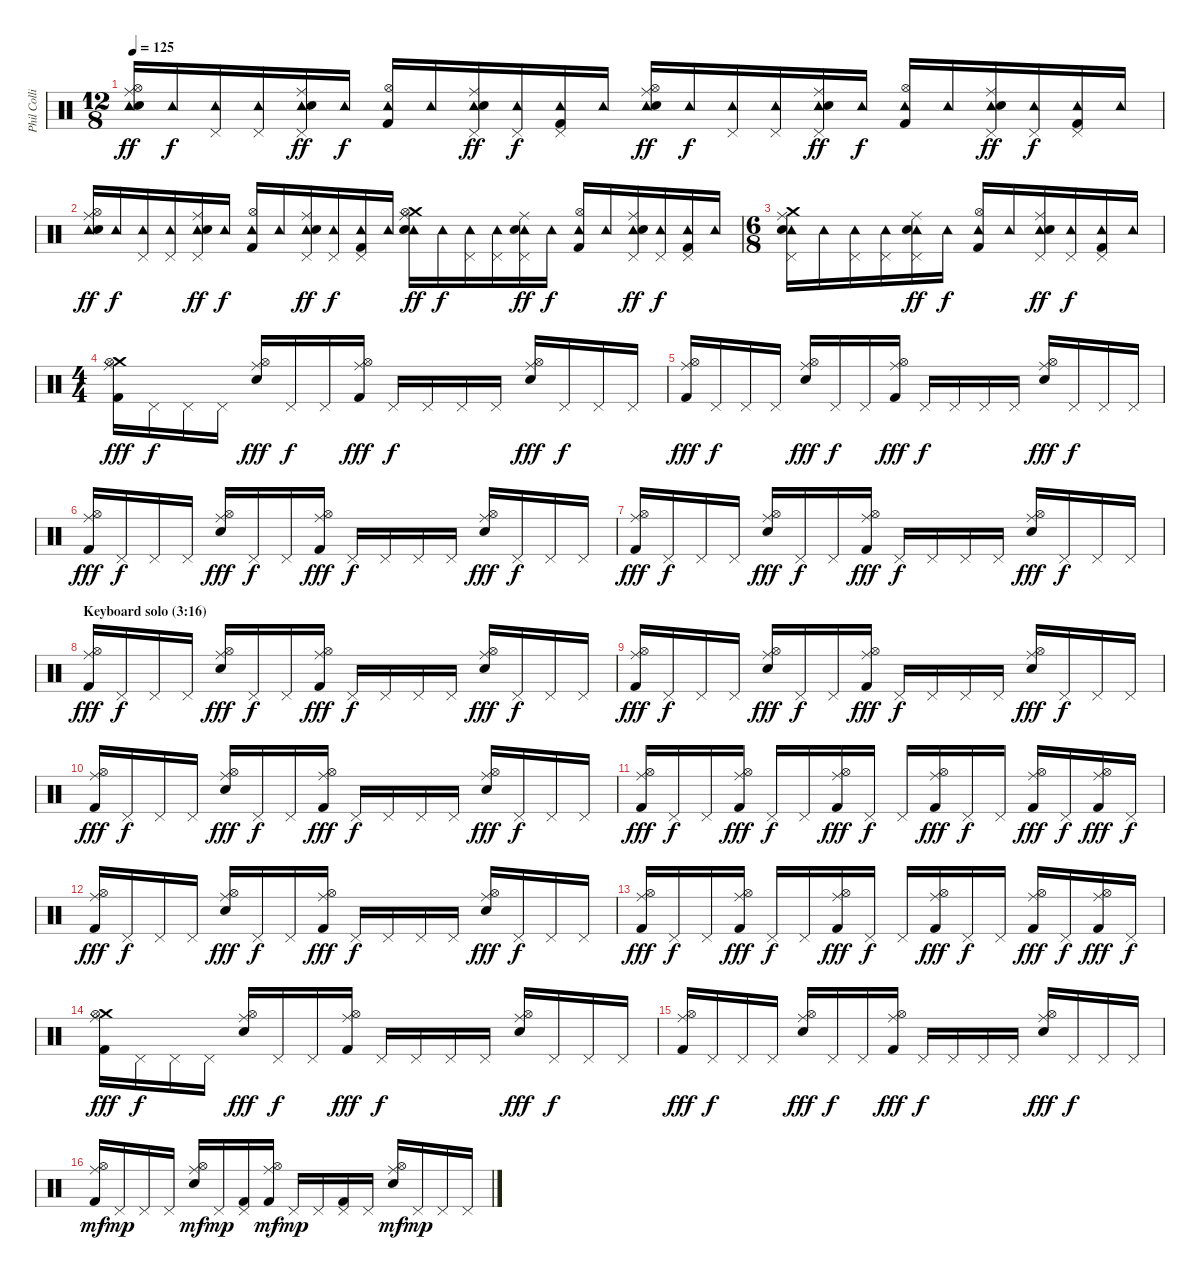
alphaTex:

\track ("Phil Collins (drums)" "Phil Colli") {instrument percussion}
\staff {score}
\articulation defaults
\ts (12 8)
\tempo 125
\clef neutral
\ks c
("Ride (middle)" "Tambourine (hit)" "Hi-Hat (open)" "Electric Snare (hit)").16{dy ff} "Tambourine (hit)".16{dy f} ("Tambourine (hit)" "Pedal Hi-Hat (hit)").16 ("Tambourine (hit)" "Pedal Hi-Hat (hit)").16 ("Ride (middle)" "Tambourine (hit)" "Pedal Hi-Hat (hit)" "Electric Snare (hit)").16{dy ff} "Tambourine (hit)".16{dy f} ("Tambourine (hit)" "Hi-Hat (open)" "Kick (hit) 2").16 "Tambourine (hit)".16 ("Ride (middle)" "Tambourine (hit)" "Pedal Hi-Hat (hit)" "Electric Snare (hit)").16{dy ff} ("Tambourine (hit)" "Pedal Hi-Hat (hit)").16{dy f} ("Tambourine (hit)" "Pedal Hi-Hat (hit)" "Kick (hit) 2").16 "Tambourine (hit)".16 ("Ride (middle)" "Tambourine (hit)" "Hi-Hat (open)" "Electric Snare (hit)").16{dy ff} "Tambourine (hit)".16{dy f} ("Tambourine (hit)" "Pedal Hi-Hat (hit)").16 ("Tambourine (hit)" "Pedal Hi-Hat (hit)").16 ("Ride (middle)" "Tambourine (hit)" "Pedal Hi-Hat (hit)" "Electric Snare (hit)").16{dy ff} "Tambourine (hit)".16{dy f} ("Tambourine (hit)" "Hi-Hat (open)" "Kick (hit) 2").16 "Tambourine (hit)".16 ("Ride (middle)" "Tambourine (hit)" "Pedal Hi-Hat (hit)" "Electric Snare (hit)").16{dy ff} ("Tambourine (hit)" "Pedal Hi-Hat (hit)").16{dy f} ("Tambourine (hit)" "Pedal Hi-Hat (hit)" "Kick (hit) 2").16 "Tambourine (hit)".16 |
("Ride (middle)" "Tambourine (hit)" "Hi-Hat (open)" "Electric Snare (hit)").16{dy ff} "Tambourine (hit)".16{dy f} ("Tambourine (hit)" "Pedal Hi-Hat (hit)").16 ("Tambourine (hit)" "Pedal Hi-Hat (hit)").16 ("Ride (middle)" "Tambourine (hit)" "Pedal Hi-Hat (hit)" "Electric Snare (hit)").16{dy ff} "Tambourine (hit)".16{dy f} ("Tambourine (hit)" "Hi-Hat (open)" "Kick (hit) 2").16 "Tambourine (hit)".16 ("Ride (middle)" "Tambourine (hit)" "Pedal Hi-Hat (hit)" "Electric Snare (hit)").16{dy ff} ("Tambourine (hit)" "Pedal Hi-Hat (hit)").16{dy f} ("Tambourine (hit)" "Pedal Hi-Hat (hit)" "Kick (hit) 2").16 "Tambourine (hit)".16 ("Crash medium (hit)" "Ride (middle)" "Tambourine (hit)" "Hi-Hat (open)" "Electric Snare (hit)").16{dy ff} "Tambourine (hit)".16{dy f} ("Tambourine (hit)" "Pedal Hi-Hat (hit)").16 ("Tambourine (hit)" "Pedal Hi-Hat (hit)").16 ("Ride (middle)" "Tambourine (hit)" "Pedal Hi-Hat (hit)" "Electric Snare (hit)").16{dy ff} "Tambourine (hit)".16{dy f} ("Tambourine (hit)" "Hi-Hat (open)" "Kick (hit) 2").16 "Tambourine (hit)".16 ("Ride (middle)" "Tambourine (hit)" "Pedal Hi-Hat (hit)" "Electric Snare (hit)").16{dy ff} ("Tambourine (hit)" "Pedal Hi-Hat (hit)").16{dy f} ("Tambourine (hit)" "Pedal Hi-Hat (hit)" "Kick (hit) 2").16 "Tambourine (hit)".16 |
\ts (6 8)
("Crash medium (hit)" "Ride (middle)" "Tambourine (hit)" "Pedal Hi-Hat (hit)" "Electric Snare (hit)").16 "Tambourine (hit)".16 ("Tambourine (hit)" "Pedal Hi-Hat (hit)").16 ("Tambourine (hit)" "Pedal Hi-Hat (hit)").16 ("Ride (middle)" "Tambourine (hit)" "Pedal Hi-Hat (hit)" "Electric Snare (hit)").16{dy ff} "Tambourine (hit)".16{dy f} ("Tambourine (hit)" "Hi-Hat (open)" "Kick (hit) 2").16 "Tambourine (hit)".16 ("Ride (middle)" "Tambourine (hit)" "Pedal Hi-Hat (hit)" "Electric Snare (hit)").16{dy ff} ("Tambourine (hit)" "Pedal Hi-Hat (hit)").16{dy f} ("Tambourine (hit)" "Pedal Hi-Hat (hit)" "Kick (hit) 2").16 "Tambourine (hit)".16 |
\ts (4 4)
("Crash medium (hit)" "Ride (middle)" "Hi-Hat (open)" "Kick (hit) 2").16{dy fff} "Pedal Hi-Hat (hit)".16{dy f} "Pedal Hi-Hat (hit)".16 "Pedal Hi-Hat (hit)".16 ("Ride (middle)" "Hi-Hat (open)" "Electric Snare (hit)").16{dy fff} "Pedal Hi-Hat (hit)".16{dy f} "Pedal Hi-Hat (hit)".16 ("Ride (middle)" "Hi-Hat (open)" "Kick (hit) 2").16{dy fff} "Pedal Hi-Hat (hit)".16{dy f} "Pedal Hi-Hat (hit)".16 "Pedal Hi-Hat (hit)".16 "Pedal Hi-Hat (hit)".16 ("Ride (middle)" "Hi-Hat (open)" "Electric Snare (hit)").16{dy fff} "Pedal Hi-Hat (hit)".16{dy f} "Pedal Hi-Hat (hit)".16 "Pedal Hi-Hat (hit)".16 |
("Ride (middle)" "Hi-Hat (open)" "Kick (hit) 2").16{dy fff} "Pedal Hi-Hat (hit)".16{dy f} "Pedal Hi-Hat (hit)".16 "Pedal Hi-Hat (hit)".16 ("Ride (middle)" "Hi-Hat (open)" "Electric Snare (hit)").16{dy fff} "Pedal Hi-Hat (hit)".16{dy f} "Pedal Hi-Hat (hit)".16 ("Ride (middle)" "Hi-Hat (open)" "Kick (hit) 2").16{dy fff} "Pedal Hi-Hat (hit)".16{dy f} "Pedal Hi-Hat (hit)".16 "Pedal Hi-Hat (hit)".16 "Pedal Hi-Hat (hit)".16 ("Ride (middle)" "Hi-Hat (open)" "Electric Snare (hit)").16{dy fff} "Pedal Hi-Hat (hit)".16{dy f} "Pedal Hi-Hat (hit)".16 "Pedal Hi-Hat (hit)".16 |
("Ride (middle)" "Hi-Hat (open)" "Kick (hit) 2").16{dy fff} "Pedal Hi-Hat (hit)".16{dy f} "Pedal Hi-Hat (hit)".16 "Pedal Hi-Hat (hit)".16 ("Ride (middle)" "Hi-Hat (open)" "Electric Snare (hit)").16{dy fff} "Pedal Hi-Hat (hit)".16{dy f} "Pedal Hi-Hat (hit)".16 ("Ride (middle)" "Hi-Hat (open)" "Kick (hit) 2").16{dy fff} "Pedal Hi-Hat (hit)".16{dy f} "Pedal Hi-Hat (hit)".16 "Pedal Hi-Hat (hit)".16 "Pedal Hi-Hat (hit)".16 ("Ride (middle)" "Hi-Hat (open)" "Electric Snare (hit)").16{dy fff} "Pedal Hi-Hat (hit)".16{dy f} "Pedal Hi-Hat (hit)".16 "Pedal Hi-Hat (hit)".16 |
("Ride (middle)" "Hi-Hat (open)" "Kick (hit) 2").16{dy fff} "Pedal Hi-Hat (hit)".16{dy f} "Pedal Hi-Hat (hit)".16 "Pedal Hi-Hat (hit)".16 ("Ride (middle)" "Hi-Hat (open)" "Electric Snare (hit)").16{dy fff} "Pedal Hi-Hat (hit)".16{dy f} "Pedal Hi-Hat (hit)".16 ("Ride (middle)" "Hi-Hat (open)" "Kick (hit) 2").16{dy fff} "Pedal Hi-Hat (hit)".16{dy f} "Pedal Hi-Hat (hit)".16 "Pedal Hi-Hat (hit)".16 "Pedal Hi-Hat (hit)".16 ("Ride (middle)" "Hi-Hat (open)" "Electric Snare (hit)").16{dy fff} "Pedal Hi-Hat (hit)".16{dy f} "Pedal Hi-Hat (hit)".16 "Pedal Hi-Hat (hit)".16 |
\section ("" "Keyboard solo (3:16)")
("Ride (middle)" "Hi-Hat (open)" "Kick (hit) 2").16{dy fff} "Pedal Hi-Hat (hit)".16{dy f} "Pedal Hi-Hat (hit)".16 "Pedal Hi-Hat (hit)".16 ("Ride (middle)" "Hi-Hat (open)" "Electric Snare (hit)").16{dy fff} "Pedal Hi-Hat (hit)".16{dy f} "Pedal Hi-Hat (hit)".16 ("Ride (middle)" "Hi-Hat (open)" "Kick (hit) 2").16{dy fff} "Pedal Hi-Hat (hit)".16{dy f} "Pedal Hi-Hat (hit)".16 "Pedal Hi-Hat (hit)".16 "Pedal Hi-Hat (hit)".16 ("Ride (middle)" "Hi-Hat (open)" "Electric Snare (hit)").16{dy fff} "Pedal Hi-Hat (hit)".16{dy f} "Pedal Hi-Hat (hit)".16 "Pedal Hi-Hat (hit)".16 |
("Ride (middle)" "Hi-Hat (open)" "Kick (hit) 2").16{dy fff} "Pedal Hi-Hat (hit)".16{dy f} "Pedal Hi-Hat (hit)".16 "Pedal Hi-Hat (hit)".16 ("Ride (middle)" "Hi-Hat (open)" "Electric Snare (hit)").16{dy fff} "Pedal Hi-Hat (hit)".16{dy f} "Pedal Hi-Hat (hit)".16 ("Ride (middle)" "Hi-Hat (open)" "Kick (hit) 2").16{dy fff} "Pedal Hi-Hat (hit)".16{dy f} "Pedal Hi-Hat (hit)".16 "Pedal Hi-Hat (hit)".16 "Pedal Hi-Hat (hit)".16 ("Ride (middle)" "Hi-Hat (open)" "Electric Snare (hit)").16{dy fff} "Pedal Hi-Hat (hit)".16{dy f} "Pedal Hi-Hat (hit)".16 "Pedal Hi-Hat (hit)".16 |
("Ride (middle)" "Hi-Hat (open)" "Kick (hit) 2").16{dy fff} "Pedal Hi-Hat (hit)".16{dy f} "Pedal Hi-Hat (hit)".16 "Pedal Hi-Hat (hit)".16 ("Ride (middle)" "Hi-Hat (open)" "Electric Snare (hit)").16{dy fff} "Pedal Hi-Hat (hit)".16{dy f} "Pedal Hi-Hat (hit)".16 ("Ride (middle)" "Hi-Hat (open)" "Kick (hit) 2").16{dy fff} "Pedal Hi-Hat (hit)".16{dy f} "Pedal Hi-Hat (hit)".16 "Pedal Hi-Hat (hit)".16 "Pedal Hi-Hat (hit)".16 ("Ride (middle)" "Hi-Hat (open)" "Electric Snare (hit)").16{dy fff} "Pedal Hi-Hat (hit)".16{dy f} "Pedal Hi-Hat (hit)".16 "Pedal Hi-Hat (hit)".16 |
("Ride (middle)" "Hi-Hat (open)" "Kick (hit) 2").16{dy fff} "Pedal Hi-Hat (hit)".16{dy f} "Pedal Hi-Hat (hit)".16 ("Ride (middle)" "Hi-Hat (open)" "Kick (hit) 2").16{dy fff} "Pedal Hi-Hat (hit)".16{dy f} "Pedal Hi-Hat (hit)".16 ("Ride (middle)" "Hi-Hat (open)" "Kick (hit) 2").16{dy fff} "Pedal Hi-Hat (hit)".16{dy f} "Pedal Hi-Hat (hit)".16 ("Ride (middle)" "Hi-Hat (open)" "Kick (hit) 2").16{dy fff} "Pedal Hi-Hat (hit)".16{dy f} "Pedal Hi-Hat (hit)".16 ("Ride (middle)" "Hi-Hat (open)" "Kick (hit) 2").16{dy fff} "Pedal Hi-Hat (hit)".16{dy f} ("Ride (middle)" "Hi-Hat (open)" "Kick (hit) 2").16{dy fff} "Pedal Hi-Hat (hit)".16{dy f} |
("Ride (middle)" "Hi-Hat (open)" "Kick (hit) 2").16{dy fff} "Pedal Hi-Hat (hit)".16{dy f} "Pedal Hi-Hat (hit)".16 "Pedal Hi-Hat (hit)".16 ("Ride (middle)" "Hi-Hat (open)" "Electric Snare (hit)").16{dy fff} "Pedal Hi-Hat (hit)".16{dy f} "Pedal Hi-Hat (hit)".16 ("Ride (middle)" "Hi-Hat (open)" "Kick (hit) 2").16{dy fff} "Pedal Hi-Hat (hit)".16{dy f} "Pedal Hi-Hat (hit)".16 "Pedal Hi-Hat (hit)".16 "Pedal Hi-Hat (hit)".16 ("Ride (middle)" "Hi-Hat (open)" "Electric Snare (hit)").16{dy fff} "Pedal Hi-Hat (hit)".16{dy f} "Pedal Hi-Hat (hit)".16 "Pedal Hi-Hat (hit)".16 |
("Ride (middle)" "Hi-Hat (open)" "Kick (hit) 2").16{dy fff} "Pedal Hi-Hat (hit)".16{dy f} "Pedal Hi-Hat (hit)".16 ("Ride (middle)" "Hi-Hat (open)" "Kick (hit) 2").16{dy fff} "Pedal Hi-Hat (hit)".16{dy f} "Pedal Hi-Hat (hit)".16 ("Ride (middle)" "Hi-Hat (open)" "Kick (hit) 2").16{dy fff} "Pedal Hi-Hat (hit)".16{dy f} "Pedal Hi-Hat (hit)".16 ("Ride (middle)" "Hi-Hat (open)" "Kick (hit) 2").16{dy fff} "Pedal Hi-Hat (hit)".16{dy f} "Pedal Hi-Hat (hit)".16 ("Ride (middle)" "Hi-Hat (open)" "Kick (hit) 2").16{dy fff} "Pedal Hi-Hat (hit)".16{dy f} ("Ride (middle)" "Hi-Hat (open)" "Kick (hit) 2").16{dy fff} "Pedal Hi-Hat (hit)".16{dy f} |
("Crash medium (hit)" "Ride (middle)" "Hi-Hat (open)" "Kick (hit) 2").16{dy fff} "Pedal Hi-Hat (hit)".16{dy f} "Pedal Hi-Hat (hit)".16 "Pedal Hi-Hat (hit)".16 ("Ride (middle)" "Hi-Hat (open)" "Electric Snare (hit)").16{dy fff} "Pedal Hi-Hat (hit)".16{dy f} "Pedal Hi-Hat (hit)".16 ("Ride (middle)" "Hi-Hat (open)" "Kick (hit) 2").16{dy fff} "Pedal Hi-Hat (hit)".16{dy f} "Pedal Hi-Hat (hit)".16 "Pedal Hi-Hat (hit)".16 "Pedal Hi-Hat (hit)".16 ("Ride (middle)" "Hi-Hat (open)" "Electric Snare (hit)").16{dy fff} "Pedal Hi-Hat (hit)".16{dy f} "Pedal Hi-Hat (hit)".16 "Pedal Hi-Hat (hit)".16 |
("Ride (middle)" "Hi-Hat (open)" "Kick (hit) 2").16{dy fff} "Pedal Hi-Hat (hit)".16{dy f} "Pedal Hi-Hat (hit)".16 "Pedal Hi-Hat (hit)".16 ("Ride (middle)" "Hi-Hat (open)" "Electric Snare (hit)").16{dy fff} "Pedal Hi-Hat (hit)".16{dy f} "Pedal Hi-Hat (hit)".16 ("Ride (middle)" "Hi-Hat (open)" "Kick (hit) 2").16{dy fff} "Pedal Hi-Hat (hit)".16{dy f} "Pedal Hi-Hat (hit)".16 "Pedal Hi-Hat (hit)".16 "Pedal Hi-Hat (hit)".16 ("Ride (middle)" "Hi-Hat (open)" "Electric Snare (hit)").16{dy fff} "Pedal Hi-Hat (hit)".16{dy f} "Pedal Hi-Hat (hit)".16 "Pedal Hi-Hat (hit)".16 |
("Ride (middle)" "Hi-Hat (open)" "Kick (hit) 2").16{dy mf} "Pedal Hi-Hat (hit)".16{dy mp} "Pedal Hi-Hat (hit)".16 "Pedal Hi-Hat (hit)".16 ("Ride (middle)" "Hi-Hat (open)" "Electric Snare (hit)").16{dy mf} "Pedal Hi-Hat (hit)".16{dy mp} ("Pedal Hi-Hat (hit)" "Kick (hit) 2").16 ("Ride (middle)" "Hi-Hat (open)" "Kick (hit) 2").16{dy mf} "Pedal Hi-Hat (hit)".16{dy mp} "Pedal Hi-Hat (hit)".16 ("Pedal Hi-Hat (hit)" "Kick (hit) 2").16 "Pedal Hi-Hat (hit)".16 ("Ride (middle)" "Hi-Hat (open)" "Electric Snare (hit)").16{dy mf} "Pedal Hi-Hat (hit)".16{dy mp} "Pedal Hi-Hat (hit)".16 "Pedal Hi-Hat (hit)".16
